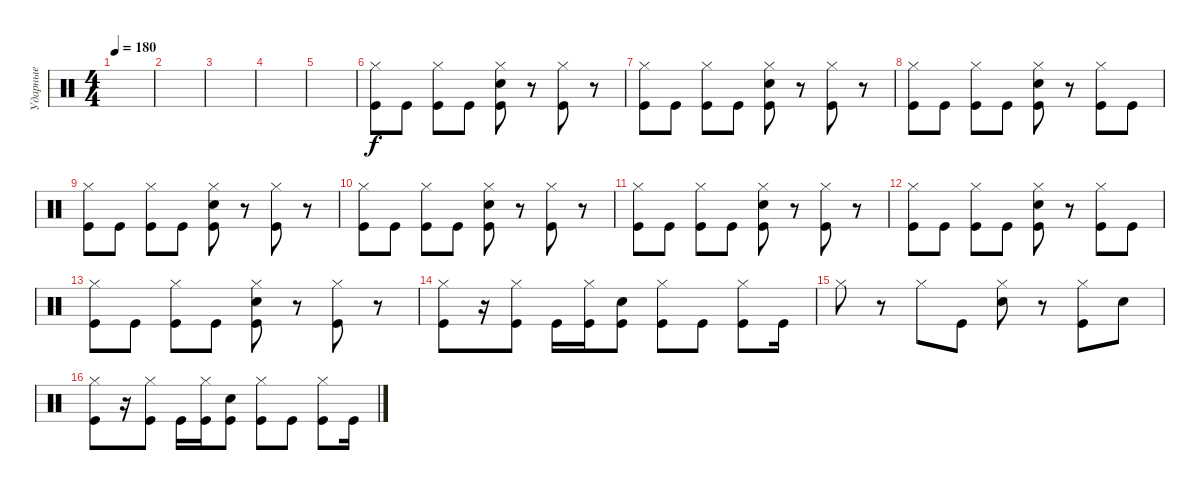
\track ("Ударные" "Ударные") {instrument percussion}
\staff {score}
\articulation defaults
\ts (4 4)
\tempo 180
\clef neutral
\ks c
|
|
|
|
|
("Hi-Hat (closed)" "Kick (hit)").8 "Kick (hit)".8 ("Hi-Hat (closed)" "Kick (hit)").8 "Kick (hit)".8 ("Hi-Hat (closed)" "Kick (hit)" "Electric Snare (hit)").8 r.8 ("Hi-Hat (closed)" "Kick (hit)").8 r.8 |
("Hi-Hat (closed)" "Kick (hit)").8 "Kick (hit)".8 ("Hi-Hat (closed)" "Kick (hit)").8 "Kick (hit)".8 ("Hi-Hat (closed)" "Kick (hit)" "Electric Snare (hit)").8 r.8 ("Hi-Hat (closed)" "Kick (hit)").8 r.8 |
("Hi-Hat (closed)" "Kick (hit)").8 "Kick (hit)".8 ("Hi-Hat (closed)" "Kick (hit)").8 "Kick (hit)".8 ("Hi-Hat (closed)" "Kick (hit)" "Electric Snare (hit)").8 r.8 ("Hi-Hat (closed)" "Kick (hit)").8 "Kick (hit)".8 |
("Hi-Hat (closed)" "Kick (hit)").8 "Kick (hit)".8 ("Hi-Hat (closed)" "Kick (hit)").8 "Kick (hit)".8 ("Hi-Hat (closed)" "Kick (hit)" "Electric Snare (hit)").8 r.8 ("Hi-Hat (closed)" "Kick (hit)").8 r.8 |
("Hi-Hat (closed)" "Kick (hit)").8 "Kick (hit)".8 ("Hi-Hat (closed)" "Kick (hit)").8 "Kick (hit)".8 ("Hi-Hat (closed)" "Kick (hit)" "Electric Snare (hit)").8 r.8 ("Hi-Hat (closed)" "Kick (hit)").8 r.8 |
("Hi-Hat (closed)" "Kick (hit)").8 "Kick (hit)".8 ("Hi-Hat (closed)" "Kick (hit)").8 "Kick (hit)".8 ("Hi-Hat (closed)" "Kick (hit)" "Electric Snare (hit)").8 r.8 ("Hi-Hat (closed)" "Kick (hit)").8 r.8 |
("Hi-Hat (closed)" "Kick (hit)").8 "Kick (hit)".8 ("Hi-Hat (closed)" "Kick (hit)").8 "Kick (hit)".8 ("Hi-Hat (closed)" "Kick (hit)" "Electric Snare (hit)").8 r.8 ("Hi-Hat (closed)" "Kick (hit)").8 "Kick (hit)".8 |
("Hi-Hat (closed)" "Kick (hit)").8 "Kick (hit)".8 ("Hi-Hat (closed)" "Kick (hit)").8 "Kick (hit)".8 ("Hi-Hat (closed)" "Kick (hit)" "Electric Snare (hit)").8 r.8 ("Hi-Hat (closed)" "Kick (hit)").8 r.8 |
("Hi-Hat (closed)" "Kick (hit)").8 r.16 ("Hi-Hat (closed)" "Kick (hit)").8 "Kick (hit)".16 ("Hi-Hat (closed)" "Kick (hit)").16 ("Kick (hit)" "Electric Snare (hit)").8 ("Hi-Hat (closed)" "Kick (hit)").8 "Kick (hit)".8 ("Hi-Hat (closed)" "Kick (hit)").8 "Kick (hit)".16 |
"Hi-Hat (closed)".8 r.8 "Hi-Hat (closed)".8 "Kick (hit)".8 ("Hi-Hat (closed)" "Electric Snare (hit)").8 r.8 ("Hi-Hat (closed)" "Kick (hit)").8 "Electric Snare (hit)".8 |
("Hi-Hat (closed)" "Kick (hit)").8 r.16 ("Hi-Hat (closed)" "Kick (hit)").8 "Kick (hit)".16 ("Hi-Hat (closed)" "Kick (hit)").16 ("Kick (hit)" "Electric Snare (hit)").8 ("Hi-Hat (closed)" "Kick (hit)").8 "Kick (hit)".8 ("Hi-Hat (closed)" "Kick (hit)").8 "Kick (hit)".16
